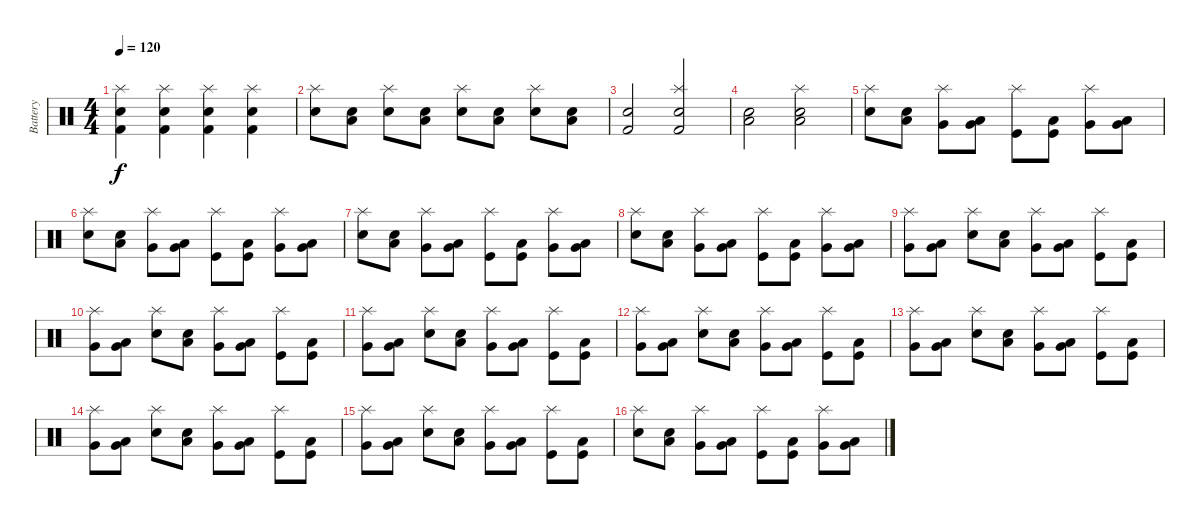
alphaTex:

\track ("Battery" "Battery") {instrument percussion}
\staff {score}
\articulation defaults
\ts (4 4)
\tempo 120
\clef neutral
\ks c
("Snare (hit) 2" "Kick (hit) 2" "Splash (hit)").4{dy f} ("Snare (hit) 2" "Kick (hit) 2" "Splash (hit)").4 ("Snare (hit) 2" "Kick (hit) 2" "Splash (hit)").4 ("Snare (hit) 2" "Kick (hit) 2" "Splash (hit)").4 |
("Snare (hit) 2" "Splash (hit)").8 ("Snare (hit) 2" "Low Floor Tom (hit)").8 ("Snare (hit) 2" "Splash (hit)").8 ("Snare (hit) 2" "Low Floor Tom (hit)").8 ("Snare (hit) 2" "Splash (hit)").8 ("Snare (hit) 2" "Low Floor Tom (hit)").8 ("Snare (hit) 2" "Splash (hit)").8 ("Snare (hit) 2" "Low Floor Tom (hit)").8 |
("Electric Snare (hit)" "Kick (hit) 2").2 ("Electric Snare (hit)" "Kick (hit) 2" "Splash (hit)").2 |
("Low Floor Tom (hit)" "Snare (hit) 2").2 ("Low Floor Tom (hit)" "Snare (hit) 2" "Splash (hit)").2 |
("Snare (hit) 2" "Splash (hit)").8 ("Snare (hit) 2" "Low Floor Tom (hit)").8 ("Very Low Tom (hit)" "Splash (hit)").8 ("Very Low Tom (hit)" "Low Floor Tom (hit)").8 ("Kick (hit)" "Splash (hit)").8 ("Kick (hit)" "Low Floor Tom (hit)").8 ("Very Low Tom (hit)" "Splash (hit)").8 ("Very Low Tom (hit)" "Low Floor Tom (hit)").8 |
("Snare (hit) 2" "Splash (hit)").8 ("Snare (hit) 2" "Low Floor Tom (hit)").8 ("Very Low Tom (hit)" "Splash (hit)").8 ("Very Low Tom (hit)" "Low Floor Tom (hit)").8 ("Kick (hit)" "Splash (hit)").8 ("Kick (hit)" "Low Floor Tom (hit)").8 ("Very Low Tom (hit)" "Splash (hit)").8 ("Very Low Tom (hit)" "Low Floor Tom (hit)").8 |
("Snare (hit) 2" "Splash (hit)").8 ("Snare (hit) 2" "Low Floor Tom (hit)").8 ("Very Low Tom (hit)" "Splash (hit)").8 ("Very Low Tom (hit)" "Low Floor Tom (hit)").8 ("Kick (hit)" "Splash (hit)").8 ("Kick (hit)" "Low Floor Tom (hit)").8 ("Very Low Tom (hit)" "Splash (hit)").8 ("Very Low Tom (hit)" "Low Floor Tom (hit)").8 |
("Snare (hit) 2" "Splash (hit)").8 ("Snare (hit) 2" "Low Floor Tom (hit)").8 ("Very Low Tom (hit)" "Splash (hit)").8 ("Very Low Tom (hit)" "Low Floor Tom (hit)").8 ("Kick (hit)" "Splash (hit)").8 ("Kick (hit)" "Low Floor Tom (hit)").8 ("Very Low Tom (hit)" "Splash (hit)").8 ("Very Low Tom (hit)" "Low Floor Tom (hit)").8 |
("Very Low Tom (hit)" "Splash (hit)").8 ("Very Low Tom (hit)" "Low Floor Tom (hit)").8 ("Snare (hit) 2" "Splash (hit)").8 ("Snare (hit) 2" "Low Floor Tom (hit)").8 ("Very Low Tom (hit)" "Splash (hit)").8 ("Very Low Tom (hit)" "Low Floor Tom (hit)").8 ("Kick (hit)" "Splash (hit)").8 ("Kick (hit)" "Low Floor Tom (hit)").8 |
("Very Low Tom (hit)" "Splash (hit)").8 ("Very Low Tom (hit)" "Low Floor Tom (hit)").8 ("Snare (hit) 2" "Splash (hit)").8 ("Snare (hit) 2" "Low Floor Tom (hit)").8 ("Very Low Tom (hit)" "Splash (hit)").8 ("Very Low Tom (hit)" "Low Floor Tom (hit)").8 ("Kick (hit)" "Splash (hit)").8 ("Kick (hit)" "Low Floor Tom (hit)").8 |
("Very Low Tom (hit)" "Splash (hit)").8 ("Very Low Tom (hit)" "Low Floor Tom (hit)").8 ("Snare (hit) 2" "Splash (hit)").8 ("Snare (hit) 2" "Low Floor Tom (hit)").8 ("Very Low Tom (hit)" "Splash (hit)").8 ("Very Low Tom (hit)" "Low Floor Tom (hit)").8 ("Kick (hit)" "Splash (hit)").8 ("Kick (hit)" "Low Floor Tom (hit)").8 |
("Very Low Tom (hit)" "Splash (hit)").8 ("Very Low Tom (hit)" "Low Floor Tom (hit)").8 ("Snare (hit) 2" "Splash (hit)").8 ("Snare (hit) 2" "Low Floor Tom (hit)").8 ("Very Low Tom (hit)" "Splash (hit)").8 ("Very Low Tom (hit)" "Low Floor Tom (hit)").8 ("Kick (hit)" "Splash (hit)").8 ("Kick (hit)" "Low Floor Tom (hit)").8 |
("Very Low Tom (hit)" "Splash (hit)").8 ("Very Low Tom (hit)" "Low Floor Tom (hit)").8 ("Snare (hit) 2" "Splash (hit)").8 ("Snare (hit) 2" "Low Floor Tom (hit)").8 ("Very Low Tom (hit)" "Splash (hit)").8 ("Very Low Tom (hit)" "Low Floor Tom (hit)").8 ("Kick (hit)" "Splash (hit)").8 ("Kick (hit)" "Low Floor Tom (hit)").8 |
("Very Low Tom (hit)" "Splash (hit)").8 ("Very Low Tom (hit)" "Low Floor Tom (hit)").8 ("Snare (hit) 2" "Splash (hit)").8 ("Snare (hit) 2" "Low Floor Tom (hit)").8 ("Very Low Tom (hit)" "Splash (hit)").8 ("Very Low Tom (hit)" "Low Floor Tom (hit)").8 ("Kick (hit)" "Splash (hit)").8 ("Kick (hit)" "Low Floor Tom (hit)").8 |
("Very Low Tom (hit)" "Splash (hit)").8 ("Very Low Tom (hit)" "Low Floor Tom (hit)").8 ("Snare (hit) 2" "Splash (hit)").8 ("Snare (hit) 2" "Low Floor Tom (hit)").8 ("Very Low Tom (hit)" "Splash (hit)").8 ("Very Low Tom (hit)" "Low Floor Tom (hit)").8 ("Kick (hit)" "Splash (hit)").8 ("Kick (hit)" "Low Floor Tom (hit)").8 |
("Snare (hit) 2" "Splash (hit)").8 ("Snare (hit) 2" "Low Floor Tom (hit)").8 ("Very Low Tom (hit)" "Splash (hit)").8 ("Very Low Tom (hit)" "Low Floor Tom (hit)").8 ("Kick (hit)" "Splash (hit)").8 ("Kick (hit)" "Low Floor Tom (hit)").8 ("Very Low Tom (hit)" "Splash (hit)").8 ("Very Low Tom (hit)" "Low Floor Tom (hit)").8
